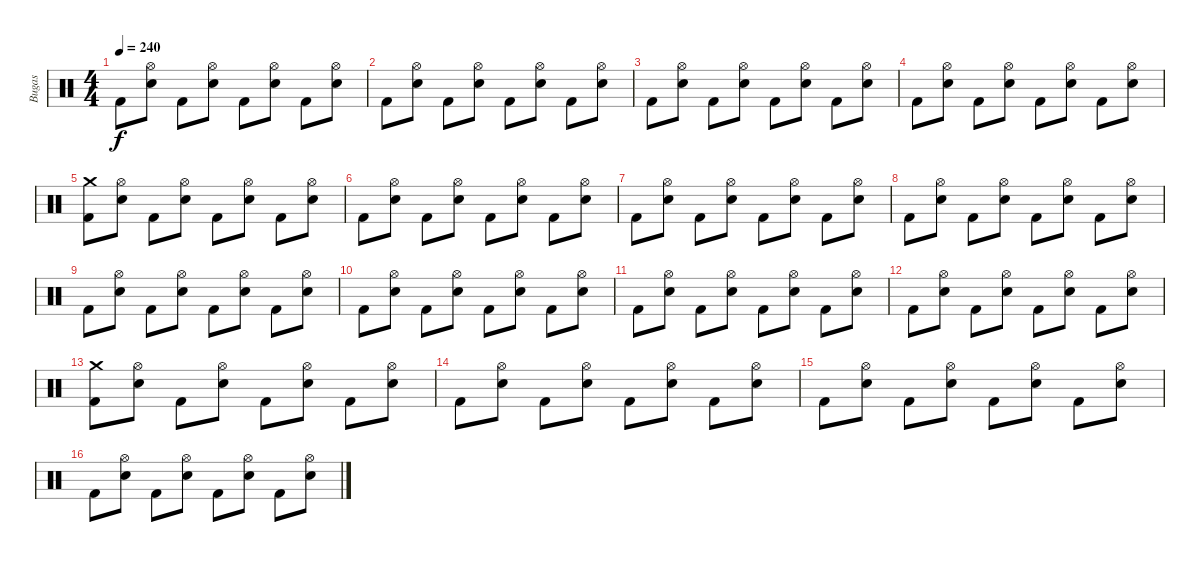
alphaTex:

\track ("Bugas" "Bugas") {instrument percussion}
\staff {score}
\articulation defaults
\ts (4 4)
\tempo 240
\clef neutral
\ks c "Kick (hit) 2".8{dy f}
("Hi-Hat (open)" "Electric Snare (hit)").8 "Kick (hit) 2".8 ("Hi-Hat (open)" "Electric Snare (hit)").8 "Kick (hit) 2".8 ("Hi-Hat (open)" "Electric Snare (hit)").8 "Kick (hit) 2".8 ("Hi-Hat (open)" "Electric Snare (hit)").8 |
"Kick (hit) 2".8 ("Hi-Hat (open)" "Electric Snare (hit)").8 "Kick (hit) 2".8 ("Hi-Hat (open)" "Electric Snare (hit)").8 "Kick (hit) 2".8 ("Hi-Hat (open)" "Electric Snare (hit)").8 "Kick (hit) 2".8 ("Hi-Hat (open)" "Electric Snare (hit)").8 |
"Kick (hit) 2".8 ("Hi-Hat (open)" "Electric Snare (hit)").8 "Kick (hit) 2".8 ("Hi-Hat (open)" "Electric Snare (hit)").8 "Kick (hit) 2".8 ("Hi-Hat (open)" "Electric Snare (hit)").8 "Kick (hit) 2".8 ("Hi-Hat (open)" "Electric Snare (hit)").8 |
"Kick (hit) 2".8 ("Hi-Hat (open)" "Electric Snare (hit)").8 "Kick (hit) 2".8 ("Hi-Hat (open)" "Electric Snare (hit)").8 "Kick (hit) 2".8 ("Hi-Hat (open)" "Electric Snare (hit)").8 "Kick (hit) 2".8 ("Hi-Hat (open)" "Electric Snare (hit)").8 |
("Crash medium (hit)" "Kick (hit) 2").8 ("Hi-Hat (open)" "Electric Snare (hit)").8 "Kick (hit) 2".8 ("Hi-Hat (open)" "Electric Snare (hit)").8 "Kick (hit) 2".8 ("Hi-Hat (open)" "Electric Snare (hit)").8 "Kick (hit) 2".8 ("Hi-Hat (open)" "Electric Snare (hit)").8 |
"Kick (hit) 2".8 ("Hi-Hat (open)" "Electric Snare (hit)").8 "Kick (hit) 2".8 ("Hi-Hat (open)" "Electric Snare (hit)").8 "Kick (hit) 2".8 ("Hi-Hat (open)" "Electric Snare (hit)").8 "Kick (hit) 2".8 ("Hi-Hat (open)" "Electric Snare (hit)").8 |
"Kick (hit) 2".8 ("Hi-Hat (open)" "Electric Snare (hit)").8 "Kick (hit) 2".8 ("Hi-Hat (open)" "Electric Snare (hit)").8 "Kick (hit) 2".8 ("Hi-Hat (open)" "Electric Snare (hit)").8 "Kick (hit) 2".8 ("Hi-Hat (open)" "Electric Snare (hit)").8 |
"Kick (hit) 2".8 ("Hi-Hat (open)" "Electric Snare (hit)").8 "Kick (hit) 2".8 ("Hi-Hat (open)" "Electric Snare (hit)").8 "Kick (hit) 2".8 ("Hi-Hat (open)" "Electric Snare (hit)").8 "Kick (hit) 2".8 ("Hi-Hat (open)" "Electric Snare (hit)").8 |
"Kick (hit) 2".8 ("Hi-Hat (open)" "Electric Snare (hit)").8 "Kick (hit) 2".8 ("Hi-Hat (open)" "Electric Snare (hit)").8 "Kick (hit) 2".8 ("Hi-Hat (open)" "Electric Snare (hit)").8 "Kick (hit) 2".8 ("Hi-Hat (open)" "Electric Snare (hit)").8 |
"Kick (hit) 2".8 ("Hi-Hat (open)" "Electric Snare (hit)").8 "Kick (hit) 2".8 ("Hi-Hat (open)" "Electric Snare (hit)").8 "Kick (hit) 2".8 ("Hi-Hat (open)" "Electric Snare (hit)").8 "Kick (hit) 2".8 ("Hi-Hat (open)" "Electric Snare (hit)").8 |
"Kick (hit) 2".8 ("Hi-Hat (open)" "Electric Snare (hit)").8 "Kick (hit) 2".8 ("Hi-Hat (open)" "Electric Snare (hit)").8 "Kick (hit) 2".8 ("Hi-Hat (open)" "Electric Snare (hit)").8 "Kick (hit) 2".8 ("Hi-Hat (open)" "Electric Snare (hit)").8 |
"Kick (hit) 2".8 ("Hi-Hat (open)" "Electric Snare (hit)").8 "Kick (hit) 2".8 ("Hi-Hat (open)" "Electric Snare (hit)").8 "Kick (hit) 2".8 ("Hi-Hat (open)" "Electric Snare (hit)").8 "Kick (hit) 2".8 ("Hi-Hat (open)" "Electric Snare (hit)").8 |
("Crash medium (hit)" "Kick (hit) 2").8 ("Hi-Hat (open)" "Electric Snare (hit)").8 "Kick (hit) 2".8 ("Hi-Hat (open)" "Electric Snare (hit)").8 "Kick (hit) 2".8 ("Hi-Hat (open)" "Electric Snare (hit)").8 "Kick (hit) 2".8 ("Hi-Hat (open)" "Electric Snare (hit)").8 |
"Kick (hit) 2".8 ("Hi-Hat (open)" "Electric Snare (hit)").8 "Kick (hit) 2".8 ("Hi-Hat (open)" "Electric Snare (hit)").8 "Kick (hit) 2".8 ("Hi-Hat (open)" "Electric Snare (hit)").8 "Kick (hit) 2".8 ("Hi-Hat (open)" "Electric Snare (hit)").8 |
"Kick (hit) 2".8 ("Hi-Hat (open)" "Electric Snare (hit)").8 "Kick (hit) 2".8 ("Hi-Hat (open)" "Electric Snare (hit)").8 "Kick (hit) 2".8 ("Hi-Hat (open)" "Electric Snare (hit)").8 "Kick (hit) 2".8 ("Hi-Hat (open)" "Electric Snare (hit)").8 |
"Kick (hit) 2".8 ("Hi-Hat (open)" "Electric Snare (hit)").8 "Kick (hit) 2".8 ("Hi-Hat (open)" "Electric Snare (hit)").8 "Kick (hit) 2".8 ("Hi-Hat (open)" "Electric Snare (hit)").8 "Kick (hit) 2".8 ("Hi-Hat (open)" "Electric Snare (hit)").8
